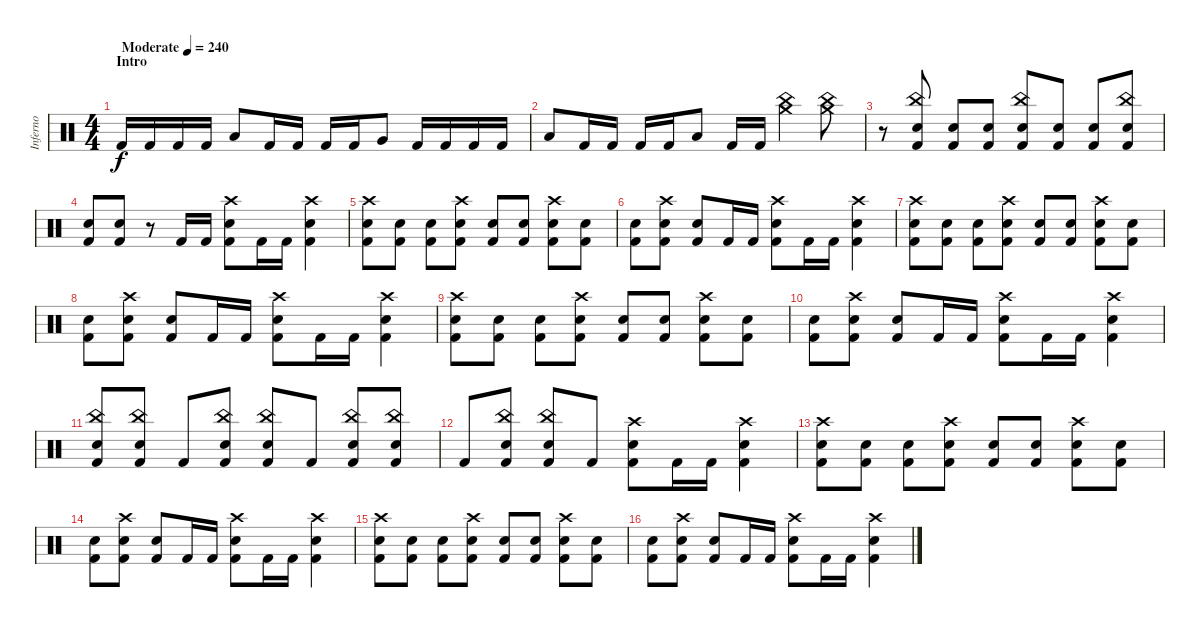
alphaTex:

\track ("Inferno" "Inferno") {instrument percussion}
\staff {score}
\articulation defaults
\ts (4 4)
\section ("" "Intro")
\tempo (240 "Moderate")
\clef neutral
\ks c "Kick (hit) 2".16{dy f} "Kick (hit) 2".16 "Kick (hit) 2".16 "Kick (hit) 2".16 "Low Tom (hit)".8 "Kick (hit) 2".16 "Kick (hit) 2".16 "Kick (hit) 2".16 "Kick (hit) 2".16 "Very Low Tom (hit)".8 "Kick (hit) 2".16 "Kick (hit) 2".16 "Kick (hit) 2".16 "Kick (hit) 2".16
|
"Low Floor Tom (hit)".8 "Kick (hit) 2".16 "Kick (hit) 2".16 "Kick (hit) 2".16 "Kick (hit) 2".16 "Low Floor Tom (hit)".8 "Kick (hit) 2".16 "Kick (hit) 2".16 ("Crash medium (hit)" "China (hit)").4 ("Crash medium (hit)" "China (hit)").8 |
r.8 ("China (hit)" "Electric Snare (hit)" "Kick (hit) 2").8 ("Electric Snare (hit)" "Kick (hit) 2").8 ("Electric Snare (hit)" "Kick (hit) 2").8 ("China (hit)" "Electric Snare (hit)" "Kick (hit) 2").8 ("Electric Snare (hit)" "Kick (hit) 2").8 ("Electric Snare (hit)" "Kick (hit) 2").8 ("China (hit)" "Electric Snare (hit)" "Kick (hit) 2").8 |
("Electric Snare (hit)" "Kick (hit) 2").8 ("Electric Snare (hit)" "Kick (hit) 2").8 r.8 "Kick (hit) 2".16 "Kick (hit) 2".16 ("Crash high (hit)" "Electric Snare (hit)" "Kick (hit) 2").8 "Kick (hit) 2".16 "Kick (hit) 2".16 ("Crash high (hit)" "Electric Snare (hit)" "Kick (hit) 2").4 |
("Crash high (hit)" "Electric Snare (hit)" "Kick (hit) 2").8 ("Electric Snare (hit)" "Kick (hit) 2").8 ("Electric Snare (hit)" "Kick (hit) 2").8 ("Crash high (hit)" "Electric Snare (hit)" "Kick (hit) 2").8 ("Electric Snare (hit)" "Kick (hit) 2").8 ("Electric Snare (hit)" "Kick (hit) 2").8 ("Crash high (hit)" "Electric Snare (hit)" "Kick (hit) 2").8 ("Electric Snare (hit)" "Kick (hit) 2").8 |
("Electric Snare (hit)" "Kick (hit) 2").8 ("Crash high (hit)" "Electric Snare (hit)" "Kick (hit) 2").8 ("Electric Snare (hit)" "Kick (hit) 2").8 "Kick (hit) 2".16 "Kick (hit) 2".16 ("Crash high (hit)" "Electric Snare (hit)" "Kick (hit) 2").8 "Kick (hit) 2".16 "Kick (hit) 2".16 ("Crash high (hit)" "Electric Snare (hit)" "Kick (hit) 2").4 |
("Crash high (hit)" "Electric Snare (hit)" "Kick (hit) 2").8 ("Electric Snare (hit)" "Kick (hit) 2").8 ("Electric Snare (hit)" "Kick (hit) 2").8 ("Crash high (hit)" "Electric Snare (hit)" "Kick (hit) 2").8 ("Electric Snare (hit)" "Kick (hit) 2").8 ("Electric Snare (hit)" "Kick (hit) 2").8 ("Crash high (hit)" "Electric Snare (hit)" "Kick (hit) 2").8 ("Electric Snare (hit)" "Kick (hit) 2").8 |
("Electric Snare (hit)" "Kick (hit) 2").8 ("Crash high (hit)" "Electric Snare (hit)" "Kick (hit) 2").8 ("Electric Snare (hit)" "Kick (hit) 2").8 "Kick (hit) 2".16 "Kick (hit) 2".16 ("Crash high (hit)" "Electric Snare (hit)" "Kick (hit) 2").8 "Kick (hit) 2".16 "Kick (hit) 2".16 ("Crash high (hit)" "Electric Snare (hit)" "Kick (hit) 2").4 |
("Crash high (hit)" "Electric Snare (hit)" "Kick (hit) 2").8 ("Electric Snare (hit)" "Kick (hit) 2").8 ("Electric Snare (hit)" "Kick (hit) 2").8 ("Crash high (hit)" "Electric Snare (hit)" "Kick (hit) 2").8 ("Electric Snare (hit)" "Kick (hit) 2").8 ("Electric Snare (hit)" "Kick (hit) 2").8 ("Crash high (hit)" "Electric Snare (hit)" "Kick (hit) 2").8 ("Electric Snare (hit)" "Kick (hit) 2").8 |
("Electric Snare (hit)" "Kick (hit) 2").8 ("Crash high (hit)" "Electric Snare (hit)" "Kick (hit) 2").8 ("Electric Snare (hit)" "Kick (hit) 2").8 "Kick (hit) 2".16 "Kick (hit) 2".16 ("Crash high (hit)" "Electric Snare (hit)" "Kick (hit) 2").8 "Kick (hit) 2".16 "Kick (hit) 2".16 ("Crash high (hit)" "Electric Snare (hit)" "Kick (hit) 2").4 |
("China (hit)" "Electric Snare (hit)" "Kick (hit) 2").8 ("China (hit)" "Electric Snare (hit)" "Kick (hit) 2").8 "Kick (hit) 2".8 ("China (hit)" "Electric Snare (hit)" "Kick (hit) 2").8 ("China (hit)" "Electric Snare (hit)" "Kick (hit) 2").8 "Kick (hit) 2".8 ("China (hit)" "Electric Snare (hit)" "Kick (hit) 2").8 ("China (hit)" "Electric Snare (hit)" "Kick (hit) 2").8 |
"Kick (hit) 2".8 ("China (hit)" "Electric Snare (hit)" "Kick (hit) 2").8 ("China (hit)" "Electric Snare (hit)" "Kick (hit) 2").8 "Kick (hit) 2".8 ("Crash high (hit)" "Electric Snare (hit)" "Kick (hit) 2").8 "Kick (hit) 2".16 "Kick (hit) 2".16 ("Crash high (hit)" "Electric Snare (hit)" "Kick (hit) 2").4 |
("Crash high (hit)" "Electric Snare (hit)" "Kick (hit) 2").8 ("Electric Snare (hit)" "Kick (hit) 2").8 ("Electric Snare (hit)" "Kick (hit) 2").8 ("Crash high (hit)" "Electric Snare (hit)" "Kick (hit) 2").8 ("Electric Snare (hit)" "Kick (hit) 2").8 ("Electric Snare (hit)" "Kick (hit) 2").8 ("Crash high (hit)" "Electric Snare (hit)" "Kick (hit) 2").8 ("Electric Snare (hit)" "Kick (hit) 2").8 |
("Electric Snare (hit)" "Kick (hit) 2").8 ("Crash high (hit)" "Electric Snare (hit)" "Kick (hit) 2").8 ("Electric Snare (hit)" "Kick (hit) 2").8 "Kick (hit) 2".16 "Kick (hit) 2".16 ("Crash high (hit)" "Electric Snare (hit)" "Kick (hit) 2").8 "Kick (hit) 2".16 "Kick (hit) 2".16 ("Crash high (hit)" "Electric Snare (hit)" "Kick (hit) 2").4 |
("Crash high (hit)" "Electric Snare (hit)" "Kick (hit) 2").8 ("Electric Snare (hit)" "Kick (hit) 2").8 ("Electric Snare (hit)" "Kick (hit) 2").8 ("Crash high (hit)" "Electric Snare (hit)" "Kick (hit) 2").8 ("Electric Snare (hit)" "Kick (hit) 2").8 ("Electric Snare (hit)" "Kick (hit) 2").8 ("Crash high (hit)" "Electric Snare (hit)" "Kick (hit) 2").8 ("Electric Snare (hit)" "Kick (hit) 2").8 |
("Electric Snare (hit)" "Kick (hit) 2").8 ("Crash high (hit)" "Electric Snare (hit)" "Kick (hit) 2").8 ("Electric Snare (hit)" "Kick (hit) 2").8 "Kick (hit) 2".16 "Kick (hit) 2".16 ("Crash high (hit)" "Electric Snare (hit)" "Kick (hit) 2").8 "Kick (hit) 2".16 "Kick (hit) 2".16 ("Crash high (hit)" "Electric Snare (hit)" "Kick (hit) 2").4
